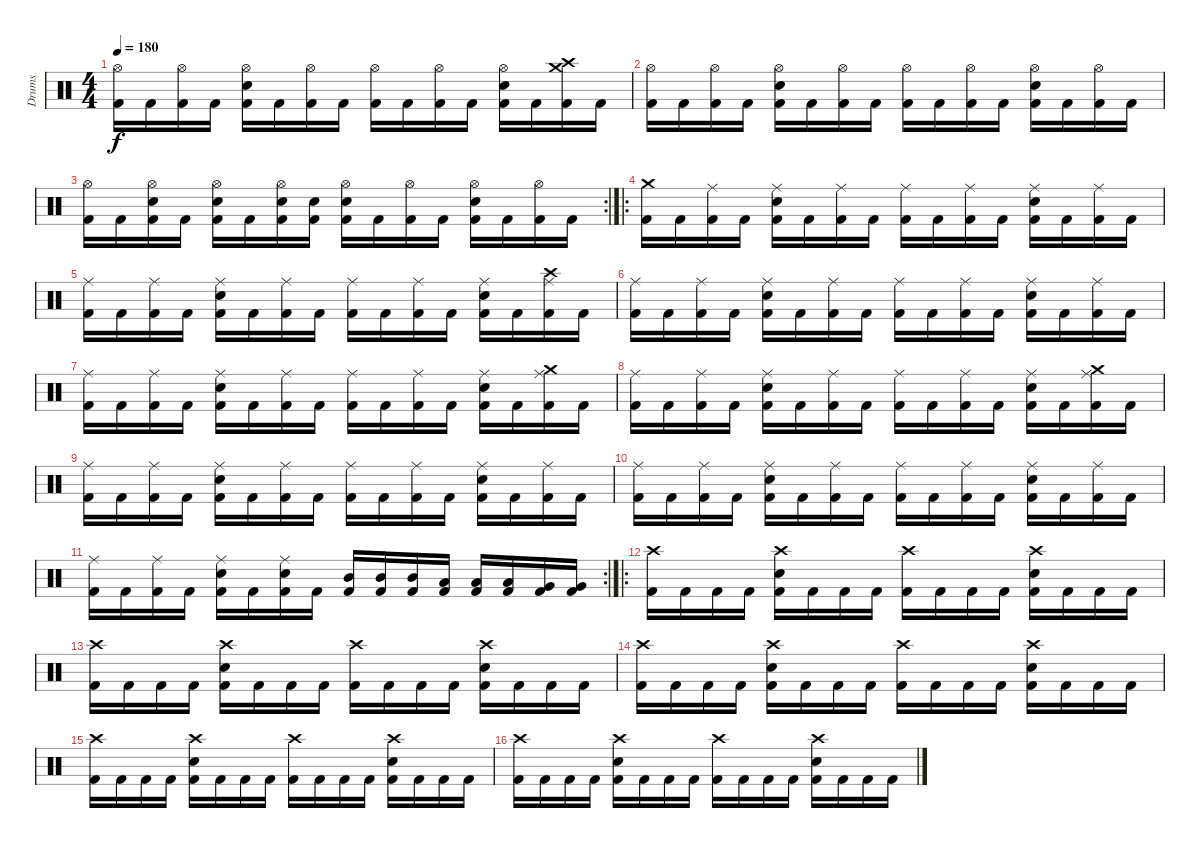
\track ("Drums" "Drums") {instrument percussion}
\staff {score}
\articulation defaults
\ts (4 4)
\tempo 180
\clef neutral
\ks c
("Hi-Hat (open)" "Kick (hit) 2").16{dy f} "Kick (hit) 2".16 ("Hi-Hat (open)" "Kick (hit) 2").16 "Kick (hit) 2".16 ("Hi-Hat (open)" "Electric Snare (hit)" "Kick (hit) 2").16 "Kick (hit) 2".16 ("Hi-Hat (open)" "Kick (hit) 2").16 "Kick (hit) 2".16 ("Hi-Hat (open)" "Kick (hit) 2").16 "Kick (hit) 2".16 ("Hi-Hat (open)" "Kick (hit) 2").16 "Kick (hit) 2".16 ("Hi-Hat (open)" "Electric Snare (hit)" "Kick (hit) 2").16 "Kick (hit) 2".16 ("Crash high (hit)" "Crash medium (hit)" "Kick (hit) 2").16 "Kick (hit) 2".16 |
("Hi-Hat (open)" "Kick (hit) 2").16 "Kick (hit) 2".16 ("Hi-Hat (open)" "Kick (hit) 2").16 "Kick (hit) 2".16 ("Hi-Hat (open)" "Electric Snare (hit)" "Kick (hit) 2").16 "Kick (hit) 2".16 ("Hi-Hat (open)" "Kick (hit) 2").16 "Kick (hit) 2".16 ("Hi-Hat (open)" "Kick (hit) 2").16 "Kick (hit) 2".16 ("Hi-Hat (open)" "Kick (hit) 2").16 "Kick (hit) 2".16 ("Hi-Hat (open)" "Electric Snare (hit)" "Kick (hit) 2").16 "Kick (hit) 2".16 ("Hi-Hat (open)" "Kick (hit) 2").16 "Kick (hit) 2".16 |
\rc 2
("Hi-Hat (open)" "Kick (hit) 2").16 "Kick (hit) 2".16 ("Hi-Hat (open)" "Electric Snare (hit)" "Kick (hit) 2").16 "Kick (hit) 2".16 ("Hi-Hat (open)" "Electric Snare (hit)" "Kick (hit) 2").16 "Kick (hit) 2".16 ("Hi-Hat (open)" "Electric Snare (hit)" "Kick (hit) 2").16 ("Electric Snare (hit)" "Kick (hit) 2").16 ("Hi-Hat (open)" "Electric Snare (hit)" "Kick (hit) 2").16 "Kick (hit) 2".16 ("Hi-Hat (open)" "Kick (hit) 2").16 "Kick (hit) 2".16 ("Hi-Hat (open)" "Electric Snare (hit)" "Kick (hit) 2").16 "Kick (hit) 2".16 ("Hi-Hat (open)" "Kick (hit) 2").16 "Kick (hit) 2".16 |
\ro
("Crash medium (hit)" "Kick (hit) 2").16 "Kick (hit) 2".16 ("Ride (middle)" "Kick (hit) 2").16 "Kick (hit) 2".16 ("Ride (middle)" "Electric Snare (hit)" "Kick (hit) 2").16 "Kick (hit) 2".16 ("Ride (middle)" "Kick (hit) 2").16 "Kick (hit) 2".16 ("Ride (middle)" "Kick (hit) 2").16 "Kick (hit) 2".16 ("Ride (middle)" "Kick (hit) 2").16 "Kick (hit) 2".16 ("Ride (middle)" "Electric Snare (hit)" "Kick (hit) 2").16 "Kick (hit) 2".16 ("Ride (middle)" "Kick (hit) 2").16 "Kick (hit) 2".16 |
("Ride (middle)" "Kick (hit) 2").16 "Kick (hit) 2".16 ("Ride (middle)" "Kick (hit) 2").16 "Kick (hit) 2".16 ("Ride (middle)" "Electric Snare (hit)" "Kick (hit) 2").16 "Kick (hit) 2".16 ("Ride (middle)" "Kick (hit) 2").16 "Kick (hit) 2".16 ("Ride (middle)" "Kick (hit) 2").16 "Kick (hit) 2".16 ("Ride (middle)" "Kick (hit) 2").16 "Kick (hit) 2".16 ("Ride (middle)" "Electric Snare (hit)" "Kick (hit) 2").16 "Kick (hit) 2".16 ("Crash high (hit)" "Ride (middle)" "Kick (hit) 2").16 "Kick (hit) 2".16 |
("Ride (middle)" "Kick (hit) 2").16 "Kick (hit) 2".16 ("Ride (middle)" "Kick (hit) 2").16 "Kick (hit) 2".16 ("Ride (middle)" "Electric Snare (hit)" "Kick (hit) 2").16 "Kick (hit) 2".16 ("Ride (middle)" "Kick (hit) 2").16 "Kick (hit) 2".16 ("Ride (middle)" "Kick (hit) 2").16 "Kick (hit) 2".16 ("Ride (middle)" "Kick (hit) 2").16 "Kick (hit) 2".16 ("Ride (middle)" "Electric Snare (hit)" "Kick (hit) 2").16 "Kick (hit) 2".16 ("Ride (middle)" "Kick (hit) 2").16 "Kick (hit) 2".16 |
("Ride (middle)" "Kick (hit) 2").16 "Kick (hit) 2".16 ("Ride (middle)" "Kick (hit) 2").16 "Kick (hit) 2".16 ("Ride (middle)" "Electric Snare (hit)" "Kick (hit) 2").16 "Kick (hit) 2".16 ("Ride (middle)" "Kick (hit) 2").16 "Kick (hit) 2".16 ("Ride (middle)" "Kick (hit) 2").16 "Kick (hit) 2".16 ("Ride (middle)" "Kick (hit) 2").16 "Kick (hit) 2".16 ("Ride (middle)" "Electric Snare (hit)" "Kick (hit) 2").16 "Kick (hit) 2".16 ("Crash medium (hit)" "Ride (middle)" "Kick (hit) 2").16 "Kick (hit) 2".16 |
("Ride (middle)" "Kick (hit) 2").16 "Kick (hit) 2".16 ("Ride (middle)" "Kick (hit) 2").16 "Kick (hit) 2".16 ("Ride (middle)" "Electric Snare (hit)" "Kick (hit) 2").16 "Kick (hit) 2".16 ("Ride (middle)" "Kick (hit) 2").16 "Kick (hit) 2".16 ("Ride (middle)" "Kick (hit) 2").16 "Kick (hit) 2".16 ("Ride (middle)" "Kick (hit) 2").16 "Kick (hit) 2".16 ("Ride (middle)" "Electric Snare (hit)" "Kick (hit) 2").16 "Kick (hit) 2".16 ("Crash medium (hit)" "Ride (middle)" "Kick (hit) 2").16 "Kick (hit) 2".16 |
("Ride (middle)" "Kick (hit) 2").16 "Kick (hit) 2".16 ("Ride (middle)" "Kick (hit) 2").16 "Kick (hit) 2".16 ("Ride (middle)" "Electric Snare (hit)" "Kick (hit) 2").16 "Kick (hit) 2".16 ("Ride (middle)" "Kick (hit) 2").16 "Kick (hit) 2".16 ("Ride (middle)" "Kick (hit) 2").16 "Kick (hit) 2".16 ("Ride (middle)" "Kick (hit) 2").16 "Kick (hit) 2".16 ("Ride (middle)" "Electric Snare (hit)" "Kick (hit) 2").16 "Kick (hit) 2".16 ("Ride (middle)" "Kick (hit) 2").16 "Kick (hit) 2".16 |
("Ride (middle)" "Kick (hit) 2").16 "Kick (hit) 2".16 ("Ride (middle)" "Kick (hit) 2").16 "Kick (hit) 2".16 ("Ride (middle)" "Electric Snare (hit)" "Kick (hit) 2").16 "Kick (hit) 2".16 ("Ride (middle)" "Kick (hit) 2").16 "Kick (hit) 2".16 ("Ride (middle)" "Kick (hit) 2").16 "Kick (hit) 2".16 ("Ride (middle)" "Kick (hit) 2").16 "Kick (hit) 2".16 ("Ride (middle)" "Electric Snare (hit)" "Kick (hit) 2").16 "Kick (hit) 2".16 ("Ride (middle)" "Kick (hit) 2").16 "Kick (hit) 2".16 |
\rc 2
("Ride (middle)" "Kick (hit) 2").16 "Kick (hit) 2".16 ("Ride (middle)" "Kick (hit) 2").16 "Kick (hit) 2".16 ("Ride (middle)" "Electric Snare (hit)" "Kick (hit) 2").16 "Kick (hit) 2".16 ("Ride (middle)" "Electric Snare (hit)" "Kick (hit) 2").16 "Kick (hit) 2".16 ("Mid Tom (hit)" "Kick (hit) 2").16 ("Mid Tom (hit)" "Kick (hit) 2").16 ("Mid Tom (hit)" "Kick (hit) 2").16 ("Low Tom (hit)" "Kick (hit) 2").16 ("Low Tom (hit)" "Kick (hit) 2").16 ("Low Tom (hit)" "Kick (hit) 2").16 ("Very Low Tom (hit)" "Kick (hit) 2").16 ("Very Low Tom (hit)" "Kick (hit) 2").16 |
\ro
("Crash high (hit)" "Kick (hit) 2").16 "Kick (hit) 2".16 "Kick (hit) 2".16 "Kick (hit) 2".16 ("Crash high (hit)" "Electric Snare (hit)" "Kick (hit) 2").16 "Kick (hit) 2".16 "Kick (hit) 2".16 "Kick (hit) 2".16 ("Crash high (hit)" "Kick (hit) 2").16 "Kick (hit) 2".16 "Kick (hit) 2".16 "Kick (hit) 2".16 ("Crash high (hit)" "Electric Snare (hit)" "Kick (hit) 2").16 "Kick (hit) 2".16 "Kick (hit) 2".16 "Kick (hit) 2".16 |
("Crash high (hit)" "Kick (hit) 2").16 "Kick (hit) 2".16 "Kick (hit) 2".16 "Kick (hit) 2".16 ("Crash high (hit)" "Electric Snare (hit)" "Kick (hit) 2").16 "Kick (hit) 2".16 "Kick (hit) 2".16 "Kick (hit) 2".16 ("Crash high (hit)" "Kick (hit) 2").16 "Kick (hit) 2".16 "Kick (hit) 2".16 "Kick (hit) 2".16 ("Crash high (hit)" "Electric Snare (hit)" "Kick (hit) 2").16 "Kick (hit) 2".16 "Kick (hit) 2".16 "Kick (hit) 2".16 |
("Crash high (hit)" "Kick (hit) 2").16 "Kick (hit) 2".16 "Kick (hit) 2".16 "Kick (hit) 2".16 ("Crash high (hit)" "Electric Snare (hit)" "Kick (hit) 2").16 "Kick (hit) 2".16 "Kick (hit) 2".16 "Kick (hit) 2".16 ("Crash high (hit)" "Kick (hit) 2").16 "Kick (hit) 2".16 "Kick (hit) 2".16 "Kick (hit) 2".16 ("Crash high (hit)" "Electric Snare (hit)" "Kick (hit) 2").16 "Kick (hit) 2".16 "Kick (hit) 2".16 "Kick (hit) 2".16 |
("Crash high (hit)" "Kick (hit) 2").16 "Kick (hit) 2".16 "Kick (hit) 2".16 "Kick (hit) 2".16 ("Crash high (hit)" "Electric Snare (hit)" "Kick (hit) 2").16 "Kick (hit) 2".16 "Kick (hit) 2".16 "Kick (hit) 2".16 ("Crash high (hit)" "Kick (hit) 2").16 "Kick (hit) 2".16 "Kick (hit) 2".16 "Kick (hit) 2".16 ("Crash high (hit)" "Electric Snare (hit)" "Kick (hit) 2").16 "Kick (hit) 2".16 "Kick (hit) 2".16 "Kick (hit) 2".16 |
("Crash high (hit)" "Kick (hit) 2").16 "Kick (hit) 2".16 "Kick (hit) 2".16 "Kick (hit) 2".16 ("Crash high (hit)" "Electric Snare (hit)" "Kick (hit) 2").16 "Kick (hit) 2".16 "Kick (hit) 2".16 "Kick (hit) 2".16 ("Crash high (hit)" "Kick (hit) 2").16 "Kick (hit) 2".16 "Kick (hit) 2".16 "Kick (hit) 2".16 ("Crash high (hit)" "Electric Snare (hit)" "Kick (hit) 2").16 "Kick (hit) 2".16 "Kick (hit) 2".16 "Kick (hit) 2".16
